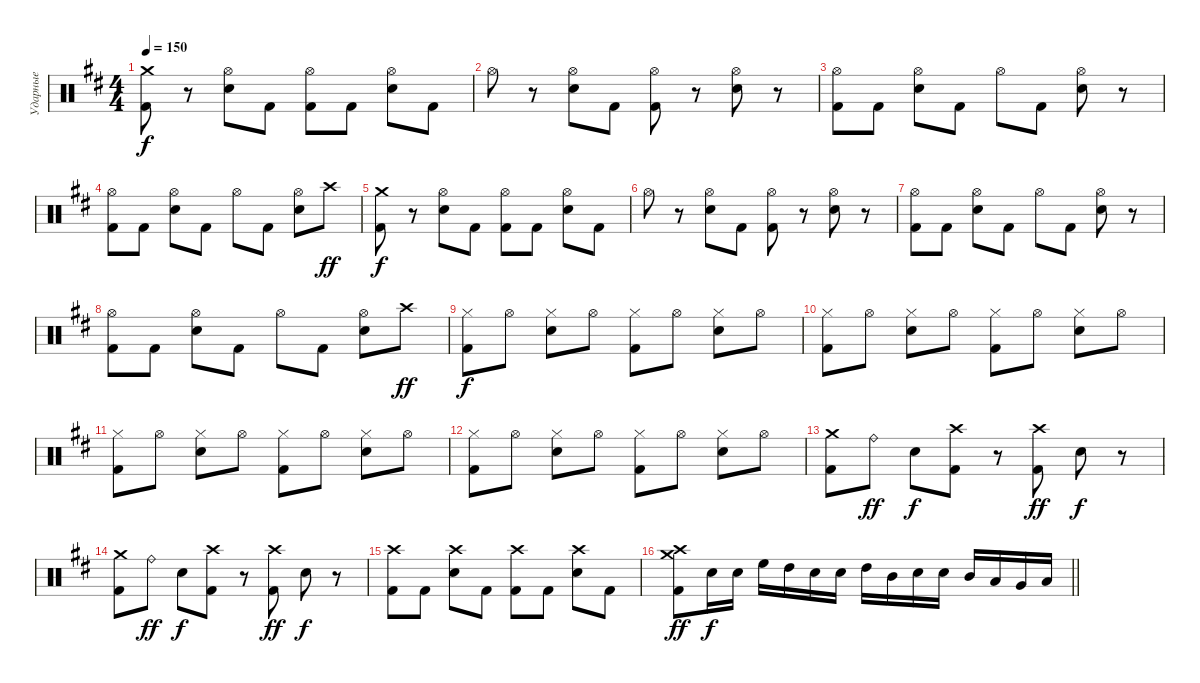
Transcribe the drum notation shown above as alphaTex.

\track ("Ударные" "Ударные") {instrument percussion}
\staff {score}
\articulation defaults
\ts (4 4)
\tempo 150
\clef neutral
\ks bminor
("Crash medium (hit)" "Kick (hit) 2").8{dy f} r.8 ("Electric Snare (hit)" "Hi-Hat (open)").8 "Kick (hit) 2".8 ("Kick (hit) 2" "Hi-Hat (open)").8 "Kick (hit) 2".8 ("Electric Snare (hit)" "Hi-Hat (open)").8 "Kick (hit) 2".8 |
"Hi-Hat (open)".8 r.8 ("Electric Snare (hit)" "Hi-Hat (open)").8 "Kick (hit) 2".8 ("Kick (hit) 2" "Hi-Hat (open)").8 r.8 ("Electric Snare (hit)" "Hi-Hat (open)").8 r.8 |
("Kick (hit) 2" "Hi-Hat (open)").8 "Kick (hit) 2".8 ("Electric Snare (hit)" "Hi-Hat (open)").8 "Kick (hit) 2".8 "Hi-Hat (open)".8 "Kick (hit) 2".8 ("Electric Snare (hit)" "Hi-Hat (open)").8 r.8 |
("Kick (hit) 2" "Hi-Hat (open)").8 "Kick (hit) 2".8 ("Electric Snare (hit)" "Hi-Hat (open)").8 "Kick (hit) 2".8 "Hi-Hat (open)".8 "Kick (hit) 2".8 ("Electric Snare (hit)" "Hi-Hat (open)").8 "Crash high (hit)".8{dy ff} |
("Crash medium (hit)" "Kick (hit) 2").8{dy f} r.8 ("Electric Snare (hit)" "Hi-Hat (open)").8 "Kick (hit) 2".8 ("Kick (hit) 2" "Hi-Hat (open)").8 "Kick (hit) 2".8 ("Electric Snare (hit)" "Hi-Hat (open)").8 "Kick (hit) 2".8 |
"Hi-Hat (open)".8 r.8 ("Electric Snare (hit)" "Hi-Hat (open)").8 "Kick (hit) 2".8 ("Kick (hit) 2" "Hi-Hat (open)").8 r.8 ("Electric Snare (hit)" "Hi-Hat (open)").8 r.8 |
("Kick (hit) 2" "Hi-Hat (open)").8 "Kick (hit) 2".8 ("Electric Snare (hit)" "Hi-Hat (open)").8 "Kick (hit) 2".8 "Hi-Hat (open)".8 "Kick (hit) 2".8 ("Electric Snare (hit)" "Hi-Hat (open)").8 r.8 |
("Kick (hit) 2" "Hi-Hat (open)").8 "Kick (hit) 2".8 ("Electric Snare (hit)" "Hi-Hat (open)").8 "Kick (hit) 2".8 "Hi-Hat (open)".8 "Kick (hit) 2".8 ("Electric Snare (hit)" "Hi-Hat (open)").8 "Crash high (hit)".8{dy ff} |
("Kick (hit) 2" "Hi-Hat (closed)").8{dy f} "Hi-Hat (open)".8 ("Electric Snare (hit)" "Hi-Hat (closed)").8 "Hi-Hat (open)".8 ("Kick (hit) 2" "Hi-Hat (closed)").8 "Hi-Hat (open)".8 ("Electric Snare (hit)" "Hi-Hat (closed)").8 "Hi-Hat (open)".8 |
("Kick (hit) 2" "Hi-Hat (closed)").8 "Hi-Hat (open)".8 ("Electric Snare (hit)" "Hi-Hat (closed)").8 "Hi-Hat (open)".8 ("Kick (hit) 2" "Hi-Hat (closed)").8 "Hi-Hat (open)".8 ("Electric Snare (hit)" "Hi-Hat (closed)").8 "Hi-Hat (open)".8 |
("Kick (hit) 2" "Hi-Hat (closed)").8 "Hi-Hat (open)".8 ("Electric Snare (hit)" "Hi-Hat (closed)").8 "Hi-Hat (open)".8 ("Kick (hit) 2" "Hi-Hat (closed)").8 "Hi-Hat (open)".8 ("Electric Snare (hit)" "Hi-Hat (closed)").8 "Hi-Hat (open)".8 |
("Kick (hit) 2" "Hi-Hat (closed)").8 "Hi-Hat (open)".8 ("Electric Snare (hit)" "Hi-Hat (closed)").8 "Hi-Hat (open)".8 ("Kick (hit) 2" "Hi-Hat (closed)").8 "Hi-Hat (open)".8 ("Electric Snare (hit)" "Hi-Hat (closed)").8 "Hi-Hat (open)".8 |
("Crash medium (hit)" "Kick (hit) 2").8 "Ride (bell)".8{dy ff} "Electric Snare (hit)".8{dy f} ("Crash high (hit)" "Kick (hit) 2").8 r.8 ("Crash high (hit)" "Kick (hit) 2").8{dy ff} "Electric Snare (hit)".8{dy f} r.8 |
("Crash medium (hit)" "Kick (hit) 2").8 "Ride (bell)".8{dy ff} "Electric Snare (hit)".8{dy f} ("Crash high (hit)" "Kick (hit) 2").8 r.8 ("Crash high (hit)" "Kick (hit) 2").8{dy ff} "Electric Snare (hit)".8{dy f} r.8 |
("Crash high (hit)" "Kick (hit) 2").8 "Kick (hit) 2".8 ("Crash high (hit)" "Electric Snare (hit)").8 "Kick (hit) 2".8 ("Crash high (hit)" "Kick (hit) 2").8 "Kick (hit) 2".8 ("Crash high (hit)" "Electric Snare (hit)").8 "Kick (hit) 2".8 |
\barLineRight lightlight
("Crash high (hit)" "Crash medium (hit)" "Kick (hit) 2").8{dy ff} "Electric Snare (hit)".16{dy f} "Electric Snare (hit)".16 "High Floor Tom (hit)".16 "High Tom (hit)".16 "Electric Snare (hit)".16 "Electric Snare (hit)".16 "High Tom (hit)".16 "Mid Tom (hit)".16 "Electric Snare (hit)".16 "Electric Snare (hit)".16 "Mid Tom (hit)".16 "Low Tom (hit)".16 "Very Low Tom (hit)".16 "Low Floor Tom (hit)".16
